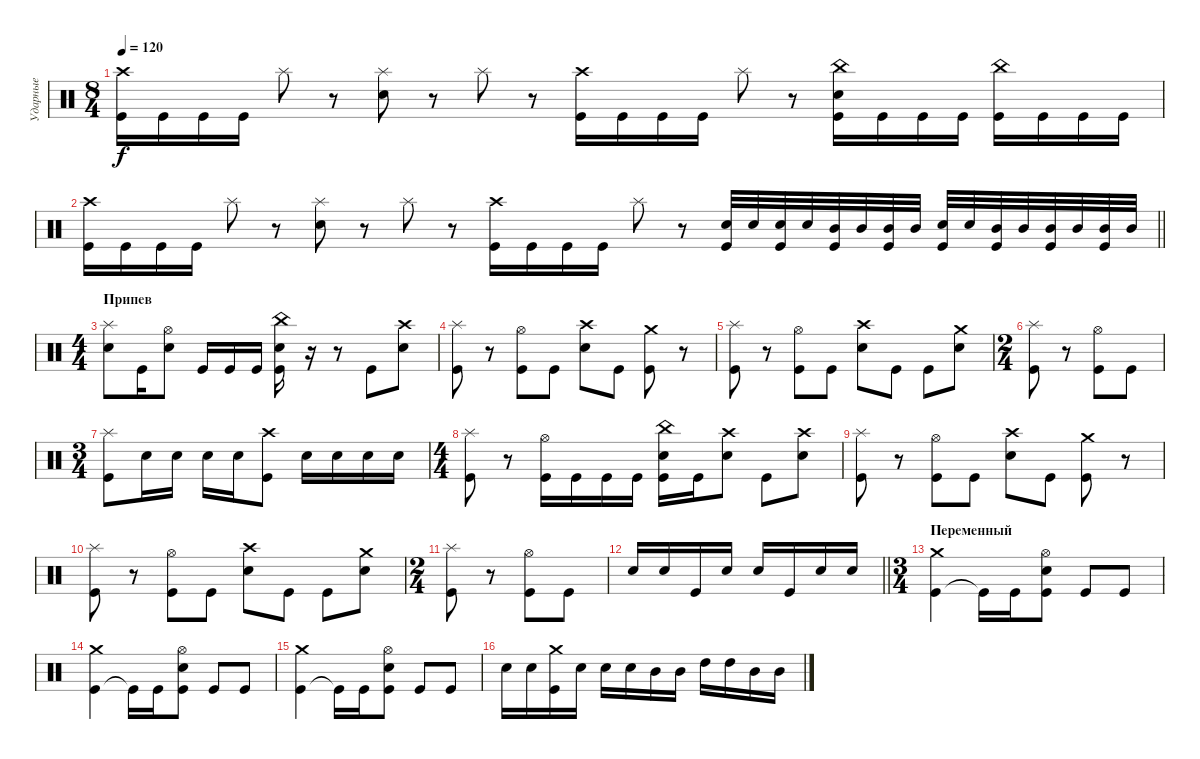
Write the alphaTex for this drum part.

\track ("Ударные" "Ударные") {instrument percussion}
\staff {score}
\articulation defaults
\ts (8 4)
\tempo 120
\clef neutral
\ks c
("Kick (hit)" "Crash high (hit)").16{dy f} "Kick (hit)".16 "Kick (hit)".16 "Kick (hit)".16 "Splash (hit)".8 r.8 ("Snare (hit) 2" "Splash (hit)").8 r.8 "Splash (hit)".8 r.8 ("Kick (hit)" "Crash high (hit)").16 "Kick (hit)".16 "Kick (hit)".16 "Kick (hit)".16 "Splash (hit)".8 r.8 ("Kick (hit)" "Snare (hit) 2" "China (hit)").16 "Kick (hit)".16 "Kick (hit)".16 "Kick (hit)".16 ("Kick (hit)" "China (hit)").16 "Kick (hit)".16 "Kick (hit)".16 "Kick (hit)".16 |
\barLineRight lightlight
("Kick (hit)" "Crash high (hit)").16 "Kick (hit)".16 "Kick (hit)".16 "Kick (hit)".16 "Splash (hit)".8 r.8 ("Snare (hit) 2" "Splash (hit)").8 r.8 "Splash (hit)".8 r.8 ("Kick (hit)" "Crash high (hit)").16 "Kick (hit)".16 "Kick (hit)".16 "Kick (hit)".16 "Splash (hit)".8 r.8 ("Snare (hit) 2" "Kick (hit)").32 "Snare (hit) 2".32 ("Snare (hit) 2" "Kick (hit)").32 "Snare (hit) 2".32 ("Mid Tom (hit)" "Kick (hit)").32 "Mid Tom (hit)".32 ("Mid Tom (hit)" "Kick (hit)").32 "Mid Tom (hit)".32 ("Snare (hit) 2" "Kick (hit)").32 "Snare (hit) 2".32 ("Mid Tom (hit)" "Kick (hit)").32 "Mid Tom (hit)".32 ("Mid Tom (hit)" "Kick (hit)").32 "Mid Tom (hit)".32 ("Mid Tom (hit)" "Kick (hit)").32 "Mid Tom (hit)".32 |
\ts (4 4)
\section ("" "Припев")
("Snare (hit) 2" "Splash (hit)").8 "Kick (hit)".16 ("Snare (hit) 2" "Hi-Hat (open)").8 "Kick (hit)".16 "Kick (hit)".16 "Kick (hit)".16 ("Kick (hit)" "Snare (hit) 2" "China (hit)").16 r.16 r.8 "Kick (hit)".8 ("Snare (hit) 2" "Crash high (hit)").8 |
("Kick (hit)" "Splash (hit)").8 r.8 ("Kick (hit)" "Hi-Hat (open)").8 "Kick (hit)".8 ("Snare (hit) 2" "Crash high (hit)").8 "Kick (hit)".8 ("Kick (hit)" "Crash medium (hit)").8 r.8 |
("Kick (hit)" "Splash (hit)").8 r.8 ("Kick (hit)" "Hi-Hat (open)").8 "Kick (hit)".8 ("Snare (hit) 2" "Crash high (hit)").8 "Kick (hit)".8 "Kick (hit)".8 ("Snare (hit) 2" "Crash medium (hit)").8 |
\ts (2 4)
("Kick (hit)" "Splash (hit)").8 r.8 ("Kick (hit)" "Hi-Hat (open)").8 "Kick (hit)".8 |
\ts (3 4)
("Kick (hit)" "Splash (hit)").8 "Snare (hit) 2".16 "Snare (hit) 2".16 "Snare (hit) 2".16 "Snare (hit) 2".16 ("Kick (hit)" "Crash high (hit)").8 "Snare (hit) 2".16 "Snare (hit) 2".16 "Snare (hit) 2".16 "Snare (hit) 2".16 |
\ts (4 4)
("Kick (hit)" "Splash (hit)").8 r.8 ("Kick (hit)" "Hi-Hat (open)").16 "Kick (hit)".16 "Kick (hit)".16 "Kick (hit)".16 ("Kick (hit)" "Snare (hit) 2" "China (hit)").16 "Kick (hit)".16 ("Snare (hit) 2" "Crash high (hit)").8 "Kick (hit)".8 ("Snare (hit) 2" "Crash high (hit)").8 |
("Kick (hit)" "Splash (hit)").8 r.8 ("Kick (hit)" "Hi-Hat (open)").8 "Kick (hit)".8 ("Snare (hit) 2" "Crash high (hit)").8 "Kick (hit)".8 ("Kick (hit)" "Crash medium (hit)").8 r.8 |
("Kick (hit)" "Splash (hit)").8 r.8 ("Kick (hit)" "Hi-Hat (open)").8 "Kick (hit)".8 ("Snare (hit) 2" "Crash high (hit)").8 "Kick (hit)".8 "Kick (hit)".8 ("Snare (hit) 2" "Crash medium (hit)").8 |
\ts (2 4)
("Kick (hit)" "Splash (hit)").8 r.8 ("Kick (hit)" "Hi-Hat (open)").8 "Kick (hit)".8 |
\barLineRight lightlight "Snare (hit) 2".16 "Snare (hit) 2".16 "Kick (hit)".16 "Snare (hit) 2".16 "Snare (hit) 2".16 "Kick (hit)".16 "Snare (hit) 2".16 "Snare (hit) 2".16
|
\ts (3 4)
\section ("" "Переменный")
("Kick (hit)" "Crash medium (hit)").4 "Kick (hit)"{t}.16 "Kick (hit)".16 ("Kick (hit)" "Snare (hit) 2" "Hi-Hat (open)").8 "Kick (hit)".8 "Kick (hit)".8 |
("Kick (hit)" "Crash medium (hit)").4 "Kick (hit)"{t}.16 "Kick (hit)".16 ("Kick (hit)" "Snare (hit) 2" "Hi-Hat (open)").8 "Kick (hit)".8 "Kick (hit)".8 |
("Kick (hit)" "Crash medium (hit)").4 "Kick (hit)"{t}.16 "Kick (hit)".16 ("Kick (hit)" "Snare (hit) 2" "Hi-Hat (open)").8 "Kick (hit)".8 "Kick (hit)".8 |
"Snare (hit) 2".16 "Snare (hit) 2".16 ("Kick (hit)" "Crash medium (hit)").16 "Snare (hit) 2".16 "Snare (hit) 2".16 "Snare (hit) 2".16 "Mid Tom (hit)".16 "Mid Tom (hit)".16 "High Tom (hit)".16 "High Tom (hit)".16 "Mid Tom (hit)".16 "Mid Tom (hit)".16
